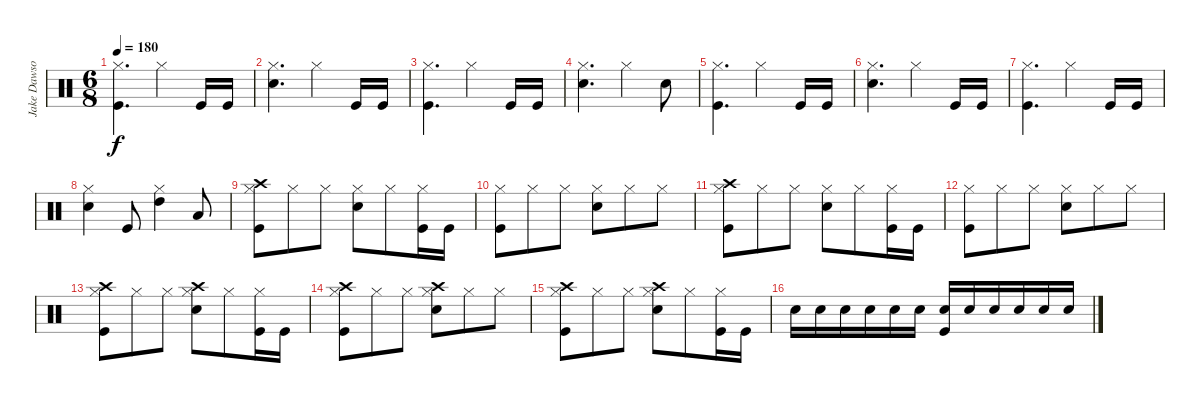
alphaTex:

\track ("Jake Dawson" "Jake Dawso") {instrument percussion}
\staff {score}
\articulation defaults
\ts (6 8)
\tempo 180
\clef neutral
\ks c
("Hi-Hat (closed)" "Kick (hit)").4{d dy f} "Hi-Hat (closed)".4 "Kick (hit)".16 "Kick (hit)".16 |
("Hi-Hat (closed)" "Snare (hit) 2").4{d} "Hi-Hat (closed)".4 "Kick (hit)".16 "Kick (hit)".16 |
("Hi-Hat (closed)" "Kick (hit)").4{d} "Hi-Hat (closed)".4 "Kick (hit)".16 "Kick (hit)".16 |
("Hi-Hat (closed)" "Snare (hit) 2").4{d} "Hi-Hat (closed)".4 "Snare (hit) 2".8 |
("Hi-Hat (closed)" "Kick (hit)").4{d} "Hi-Hat (closed)".4 "Kick (hit)".16 "Kick (hit)".16 |
("Hi-Hat (closed)" "Snare (hit) 2").4{d} "Hi-Hat (closed)".4 "Kick (hit)".16 "Kick (hit)".16 |
("Hi-Hat (closed)" "Kick (hit)").4{d} "Hi-Hat (closed)".4 "Kick (hit)".16 "Kick (hit)".16 |
("Hi-Hat (closed)" "Snare (hit) 2").4 "Kick (hit)".8 ("Hi-Hat (closed)" "High Tom (hit)").4 "Low Tom (hit)".8 |
("Crash high (hit)" "Hi-Hat (closed)" "Kick (hit)").8 "Hi-Hat (closed)".8 "Hi-Hat (closed)".8 ("Hi-Hat (closed)" "Snare (hit) 2").8 "Hi-Hat (closed)".8 ("Hi-Hat (closed)" "Kick (hit)").16 "Kick (hit)".16 |
("Hi-Hat (closed)" "Kick (hit)").8 "Hi-Hat (closed)".8 "Hi-Hat (closed)".8 ("Hi-Hat (closed)" "Snare (hit) 2").8 "Hi-Hat (closed)".8 "Hi-Hat (closed)".8 |
("Crash high (hit)" "Hi-Hat (closed)" "Kick (hit)").8 "Hi-Hat (closed)".8 "Hi-Hat (closed)".8 ("Hi-Hat (closed)" "Snare (hit) 2").8 "Hi-Hat (closed)".8 ("Hi-Hat (closed)" "Kick (hit)").16 "Kick (hit)".16 |
("Hi-Hat (closed)" "Kick (hit)").8 "Hi-Hat (closed)".8 "Hi-Hat (closed)".8 ("Hi-Hat (closed)" "Snare (hit) 2").8 "Hi-Hat (closed)".8 "Hi-Hat (closed)".8 |
("Crash high (hit)" "Hi-Hat (closed)" "Kick (hit)").8 "Hi-Hat (closed)".8 "Hi-Hat (closed)".8 ("Crash high (hit)" "Hi-Hat (closed)" "Snare (hit) 2").8 "Hi-Hat (closed)".8 ("Hi-Hat (closed)" "Kick (hit)").16 "Kick (hit)".16 |
("Crash high (hit)" "Hi-Hat (closed)" "Kick (hit)").8 "Hi-Hat (closed)".8 "Hi-Hat (closed)".8 ("Crash high (hit)" "Hi-Hat (closed)" "Snare (hit) 2").8 "Hi-Hat (closed)".8 "Hi-Hat (closed)".8 |
("Crash high (hit)" "Hi-Hat (closed)" "Kick (hit)").8 "Hi-Hat (closed)".8 "Hi-Hat (closed)".8 ("Crash high (hit)" "Hi-Hat (closed)" "Snare (hit) 2").8 "Hi-Hat (closed)".8 ("Hi-Hat (closed)" "Kick (hit)").16 "Kick (hit)".16 |
"Snare (hit) 2".16 "Snare (hit) 2".16 "Snare (hit) 2".16 "Snare (hit) 2".16 "Snare (hit) 2".16 "Snare (hit) 2".16 ("Snare (hit) 2" "Kick (hit)").16 "Snare (hit) 2".16 "Snare (hit) 2".16 "Snare (hit) 2".16 "Snare (hit) 2".16 "Snare (hit) 2".16
